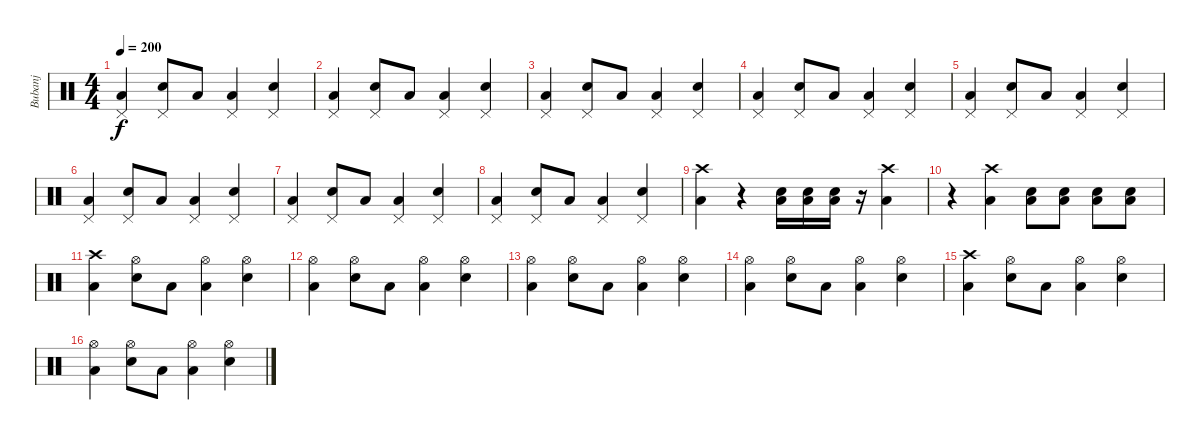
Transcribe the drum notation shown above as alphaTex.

\track ("Bubanj" "Bubanj") {instrument percussion}
\staff {score}
\articulation defaults
\ts (4 4)
\tempo 200
\clef neutral
\ks c
("Pedal Hi-Hat (hit)" "Low Tom (hit)").4{dy f} ("Pedal Hi-Hat (hit)" "Snare (hit) 2").8 "Low Tom (hit)".8 ("Pedal Hi-Hat (hit)" "Low Tom (hit)").4 ("Pedal Hi-Hat (hit)" "Snare (hit) 2").4 |
("Pedal Hi-Hat (hit)" "Low Tom (hit)").4 ("Pedal Hi-Hat (hit)" "Snare (hit) 2").8 "Low Tom (hit)".8 ("Pedal Hi-Hat (hit)" "Low Tom (hit)").4 ("Pedal Hi-Hat (hit)" "Snare (hit) 2").4 |
("Pedal Hi-Hat (hit)" "Low Tom (hit)").4 ("Pedal Hi-Hat (hit)" "Snare (hit) 2").8 "Low Tom (hit)".8 ("Pedal Hi-Hat (hit)" "Low Tom (hit)").4 ("Pedal Hi-Hat (hit)" "Snare (hit) 2").4 |
("Pedal Hi-Hat (hit)" "Low Tom (hit)").4 ("Pedal Hi-Hat (hit)" "Snare (hit) 2").8 "Low Tom (hit)".8 ("Pedal Hi-Hat (hit)" "Low Tom (hit)").4 ("Pedal Hi-Hat (hit)" "Snare (hit) 2").4 |
("Pedal Hi-Hat (hit)" "Low Tom (hit)").4 ("Pedal Hi-Hat (hit)" "Snare (hit) 2").8 "Low Tom (hit)".8 ("Pedal Hi-Hat (hit)" "Low Tom (hit)").4 ("Pedal Hi-Hat (hit)" "Snare (hit) 2").4 |
("Pedal Hi-Hat (hit)" "Low Tom (hit)").4 ("Pedal Hi-Hat (hit)" "Snare (hit) 2").8 "Low Tom (hit)".8 ("Pedal Hi-Hat (hit)" "Low Tom (hit)").4 ("Pedal Hi-Hat (hit)" "Snare (hit) 2").4 |
("Pedal Hi-Hat (hit)" "Low Tom (hit)").4 ("Pedal Hi-Hat (hit)" "Snare (hit) 2").8 "Low Tom (hit)".8 ("Pedal Hi-Hat (hit)" "Low Tom (hit)").4 ("Pedal Hi-Hat (hit)" "Snare (hit) 2").4 |
("Pedal Hi-Hat (hit)" "Low Tom (hit)").4 ("Pedal Hi-Hat (hit)" "Snare (hit) 2").8 "Low Tom (hit)".8 ("Pedal Hi-Hat (hit)" "Low Tom (hit)").4 ("Pedal Hi-Hat (hit)" "Snare (hit) 2").4 |
("Crash high (hit)" "Low Tom (hit)").4 r.4 ("Electric Snare (hit)" "Low Tom (hit)").16 ("Electric Snare (hit)" "Low Tom (hit)").16 ("Electric Snare (hit)" "Low Tom (hit)").16 r.16 ("Crash high (hit)" "Low Tom (hit)").4 |
r.4 ("Crash high (hit)" "Low Tom (hit)").4 ("Snare (hit) 2" "Low Tom (hit)").8 ("Snare (hit) 2" "Low Tom (hit)").8 ("Snare (hit) 2" "Low Tom (hit)").8 ("Snare (hit) 2" "Low Tom (hit)").8 |
("Crash high (hit)" "Low Tom (hit)").4 ("Hi-Hat (open)" "Snare (hit) 2").8 "Low Tom (hit)".8 ("Hi-Hat (open)" "Low Tom (hit)").4 ("Hi-Hat (open)" "Snare (hit) 2").4 |
("Hi-Hat (open)" "Low Tom (hit)").4 ("Hi-Hat (open)" "Snare (hit) 2").8 "Low Tom (hit)".8 ("Hi-Hat (open)" "Low Tom (hit)").4 ("Hi-Hat (open)" "Snare (hit) 2").4 |
("Hi-Hat (open)" "Low Tom (hit)").4 ("Hi-Hat (open)" "Snare (hit) 2").8 "Low Tom (hit)".8 ("Hi-Hat (open)" "Low Tom (hit)").4 ("Hi-Hat (open)" "Snare (hit) 2").4 |
("Hi-Hat (open)" "Low Tom (hit)").4 ("Hi-Hat (open)" "Snare (hit) 2").8 "Low Tom (hit)".8 ("Hi-Hat (open)" "Low Tom (hit)").4 ("Hi-Hat (open)" "Snare (hit) 2").4 |
("Crash high (hit)" "Low Tom (hit)").4 ("Hi-Hat (open)" "Snare (hit) 2").8 "Low Tom (hit)".8 ("Hi-Hat (open)" "Low Tom (hit)").4 ("Hi-Hat (open)" "Snare (hit) 2").4 |
("Hi-Hat (open)" "Low Tom (hit)").4 ("Hi-Hat (open)" "Snare (hit) 2").8 "Low Tom (hit)".8 ("Hi-Hat (open)" "Low Tom (hit)").4 ("Hi-Hat (open)" "Snare (hit) 2").4
